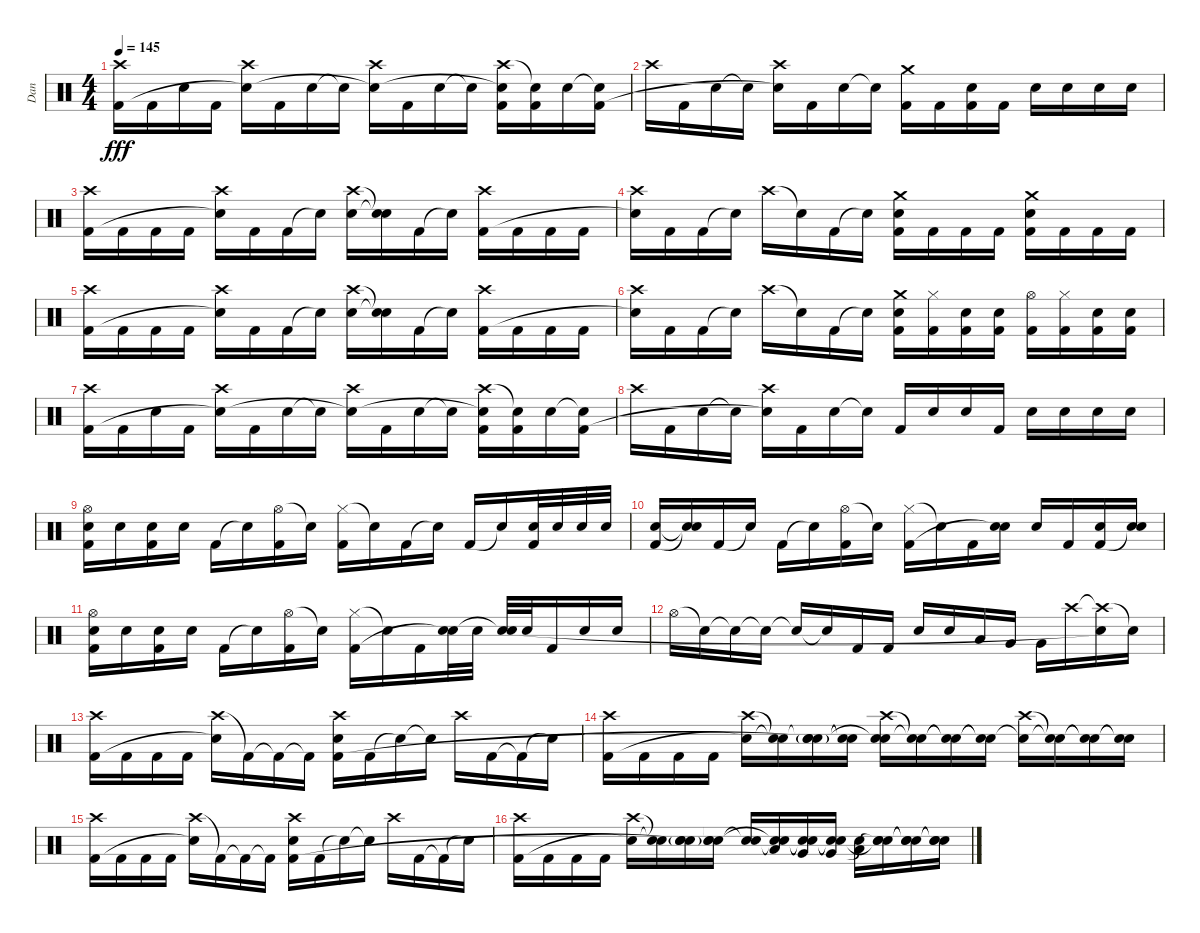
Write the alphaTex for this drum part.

\track ("Dan" "Dan") {instrument percussion}
\staff {score}
\articulation defaults
\ts (4 4)
\tempo 145
\clef neutral
\ks c
("Crash high (hit)" "Kick (hit) 2").16{dy fff} "Kick (hit) 2".16 "Electric Snare (hit)".16 "Kick (hit) 2".16 ("Crash high (hit)" "Snare (hit)"{t}).16 "Kick (hit) 2".16 "Electric Snare (hit)".16 "Snare (hit)"{t}.16 ("Crash high (hit)" "Snare (hit)"{t}).16 "Kick (hit) 2".16 "Electric Snare (hit)".16 "Snare (hit)"{t}.16 ("Crash high (hit)" "Snare (hit)"{t} "Kick (hit) 2").16 ("Snare (hit)"{t} "Kick (hit) 2").16 "Electric Snare (hit)".16 ("Snare (hit)"{t} "Kick (hit) 2").16 |
"Crash high (hit)".16 "Kick (hit) 2".16 "Electric Snare (hit)".16 "Snare (hit)"{t}.16 ("Crash high (hit)" "Snare (hit)"{t}).16 "Kick (hit) 2".16 "Electric Snare (hit)".16 "Snare (hit)"{t}.16 ("Crash medium (hit)" "Kick (hit) 2").16 "Kick (hit) 2".16 ("Electric Snare (hit)" "Kick (hit) 2").16 "Kick (hit) 2".16 "Electric Snare (hit)".16 "Electric Snare (hit)".16 "Electric Snare (hit)".16 "Electric Snare (hit)".16 |
("Crash high (hit)" "Kick (hit) 2").16 "Kick (hit) 2".16 "Kick (hit) 2".16 "Kick (hit) 2".16 ("Crash high (hit)" "Snare (hit)"{t}).16 "Kick (hit) 2".16 "Kick (hit) 2".16 "Snare (hit)"{t}.16 ("Crash high (hit)" "Electric Snare (hit)").16 ("Snare (hit)"{t} "Snare (hit)"{t}).16 "Kick (hit) 2".16 "Snare (hit)"{t}.16 ("Crash high (hit)" "Kick (hit) 2").16 "Kick (hit) 2".16 "Kick (hit) 2".16 "Kick (hit) 2".16 |
("Crash high (hit)" "Snare (hit)"{t}).16 "Kick (hit) 2".16 "Kick (hit) 2".16 "Snare (hit)"{t}.16 "Crash high (hit)".16 "Snare (hit)"{t}.16 "Kick (hit) 2".16 "Snare (hit)"{t}.16 ("Crash medium (hit)" "Electric Snare (hit)" "Kick (hit) 2").16 "Kick (hit) 2".16 "Kick (hit) 2".16 "Kick (hit) 2".16 ("Crash medium (hit)" "Electric Snare (hit)" "Kick (hit) 2").16 "Kick (hit) 2".16 "Kick (hit) 2".16 "Kick (hit) 2".16 |
("Crash high (hit)" "Kick (hit) 2").16 "Kick (hit) 2".16 "Kick (hit) 2".16 "Kick (hit) 2".16 ("Crash high (hit)" "Snare (hit)"{t}).16 "Kick (hit) 2".16 "Kick (hit) 2".16 "Snare (hit)"{t}.16 ("Crash high (hit)" "Electric Snare (hit)").16 ("Snare (hit)"{t} "Snare (hit)"{t}).16 "Kick (hit) 2".16 "Snare (hit)"{t}.16 ("Crash high (hit)" "Kick (hit) 2").16 "Kick (hit) 2".16 "Kick (hit) 2".16 "Kick (hit) 2".16 |
("Crash high (hit)" "Snare (hit)"{t}).16 "Kick (hit) 2".16 "Kick (hit) 2".16 "Snare (hit)"{t}.16 "Crash high (hit)".16 "Snare (hit)"{t}.16 "Kick (hit) 2".16 "Snare (hit)"{t}.16 ("Crash medium (hit)" "Electric Snare (hit)" "Kick (hit) 2").16 ("Hi-Hat (closed)" "Kick (hit) 2").16 ("Electric Snare (hit)" "Kick (hit) 2").16 ("Electric Snare (hit)" "Kick (hit) 2").16 ("Hi-Hat (open)" "Kick (hit) 2").16 ("Hi-Hat (closed)" "Kick (hit) 2").16 ("Electric Snare (hit)" "Kick (hit) 2").16 ("Electric Snare (hit)" "Kick (hit) 2").16 |
("Crash high (hit)" "Kick (hit) 2").16 "Kick (hit) 2".16 "Electric Snare (hit)".16 "Kick (hit) 2".16 ("Crash high (hit)" "Snare (hit)"{t}).16 "Kick (hit) 2".16 "Electric Snare (hit)".16 "Snare (hit)"{t}.16 ("Crash high (hit)" "Snare (hit)"{t}).16 "Kick (hit) 2".16 "Electric Snare (hit)".16 "Snare (hit)"{t}.16 ("Crash high (hit)" "Snare (hit)"{t} "Kick (hit) 2").16 ("Snare (hit)"{t} "Kick (hit) 2").16 "Electric Snare (hit)".16 ("Snare (hit)"{t} "Kick (hit) 2").16 |
"Crash high (hit)".16 "Kick (hit) 2".16 "Electric Snare (hit)".16 "Snare (hit)"{t}.16 ("Crash high (hit)" "Snare (hit)"{t}).16 "Kick (hit) 2".16 "Electric Snare (hit)".16 "Snare (hit)"{t}.16 "Kick (hit) 2".16 "Electric Snare (hit)".16 "Electric Snare (hit)".16 "Kick (hit) 2".16 "Electric Snare (hit)".16 "Electric Snare (hit)".16 "Electric Snare (hit)".16 "Electric Snare (hit)".16 |
("Hi-Hat (open)" "Electric Snare (hit)" "Kick (hit) 2").16 "Electric Snare (hit)".16 ("Electric Snare (hit)" "Kick (hit) 2").16 "Electric Snare (hit)".16 "Kick (hit) 2".16 "Snare (hit)"{t}.16 ("Hi-Hat (open)" "Kick (hit) 2").16 "Snare (hit)"{t}.16 ("Hi-Hat (closed)" "Kick (hit) 2").16 "Snare (hit)"{t}.16 "Kick (hit) 2".16 "Snare (hit)"{t}.16 "Kick (hit) 2".16 "Snare (hit)"{t}.16 ("Electric Snare (hit)" "Kick (hit) 2").32 "Electric Snare (hit)".32 "Electric Snare (hit)".32 "Electric Snare (hit)".32 |
("Electric Snare (hit)" "Kick (hit) 2").16 ("Snare (hit)"{t} "Snare (hit)"{t}).16 "Kick (hit) 2".16 "Snare (hit)"{t}.16 "Kick (hit) 2".16 "Snare (hit)"{t}.16 ("Hi-Hat (open)" "Kick (hit) 2").16 "Snare (hit)"{t}.16 ("Hi-Hat (closed)" "Kick (hit) 2").16 "Snare (hit)"{t}.16 "Kick (hit) 2".16 ("Electric Snare (hit)" "Snare (hit)"{t}).16 "Electric Snare (hit)".16 "Kick (hit) 2".16 ("Electric Snare (hit)" "Kick (hit) 2").16 ("Electric Snare (hit)" "Snare (hit)"{t}).16 |
("Hi-Hat (open)" "Electric Snare (hit)" "Kick (hit) 2").16 "Electric Snare (hit)".16 ("Electric Snare (hit)" "Kick (hit) 2").16 "Electric Snare (hit)".16 "Kick (hit) 2".16 "Snare (hit)"{t}.16 ("Hi-Hat (open)" "Kick (hit) 2").16 "Snare (hit)"{t}.16 ("Hi-Hat (closed)" "Kick (hit) 2").16 "Snare (hit)"{t}.16 "Kick (hit) 2".16 ("Electric Snare (hit)" "Snare (hit)"{t}).32 "Electric Snare (hit)".32 ("Electric Snare (hit)" "Snare (hit)"{t}).32 "Electric Snare (hit)".32 "Kick (hit) 2".16 "Electric Snare (hit)".16 "Electric Snare (hit)".16 |
"Hi-Hat (open)".16 "Snare (hit)"{t}.16 "Snare (hit)"{t}.16 "Snare (hit)"{t}.16 "Snare (hit)"{t}.16 "Snare (hit)"{t}.16 "Kick (hit) 2".16 "Kick (hit) 2".16 "Electric Snare (hit)".16 "Electric Snare (hit)".16 "Low Floor Tom (hit)".16 "Very Low Tom (hit)".16 "Very Low Tom (hit)".16 "Crash high (hit)".16 ("Crash high (hit)"{t} "Snare (hit)"{t}).16 "Snare (hit)"{t}.16 |
("Crash high (hit)" "Kick (hit) 2").16 "Kick (hit) 2".16 "Kick (hit) 2".16 "Kick (hit) 2".16 ("Crash high (hit)" "Snare (hit)"{t}).16 "Kick (hit) 2"{t}.16 "Kick (hit) 2"{t}.16 "Kick (hit) 2"{t}.16 ("Crash high (hit)" "Electric Snare (hit)" "Kick (hit) 2").16 "Kick (hit) 2".16 "Snare (hit)"{t}.16 "Snare (hit)"{t}.16 "Crash high (hit)".16 "Kick (hit) 2".16 "Kick (hit) 2"{t}.16 "Snare (hit)"{t}.16 |
("Crash high (hit)" "Kick (hit) 2").16 "Kick (hit) 2".16 "Kick (hit) 2".16 "Kick (hit) 2".16 ("Crash high (hit)" "Snare (hit)"{t}).16 ("Snare (hit)"{t} "Snare (hit)"{t}).16 ("Snare (hit)"{t} "Electric Snare (hit)"{g} "Snare (hit)"{t}).16 ("Snare (hit)"{t} "Snare (hit)"{t}).16 ("Crash high (hit)" "Electric Snare (hit)" "Snare (hit)"{t}).16 ("Snare (hit)"{t} "Snare (hit)"{t}).16 ("Snare (hit)"{t} "Snare (hit)"{t}).16 ("Snare (hit)"{t} "Snare (hit)"{t}).16 ("Crash high (hit)" "Snare (hit)"{t}).16 ("Snare (hit)"{t} "Snare (hit)"{t}).16 ("Snare (hit)"{t} "Snare (hit)"{t}).16 ("Snare (hit)"{t} "Snare (hit)"{t}).16 |
("Crash high (hit)" "Kick (hit) 2").16 "Kick (hit) 2".16 "Kick (hit) 2".16 "Kick (hit) 2".16 ("Crash high (hit)" "Snare (hit)"{t}).16 "Kick (hit) 2"{t}.16 "Kick (hit) 2"{t}.16 "Kick (hit) 2"{t}.16 ("Crash high (hit)" "Electric Snare (hit)" "Kick (hit) 2").16 "Kick (hit) 2".16 "Snare (hit)"{t}.16 "Snare (hit)"{t}.16 "Crash high (hit)".16 "Kick (hit) 2".16 "Kick (hit) 2"{t}.16 "Snare (hit)"{t}.16 |
("Crash high (hit)" "Kick (hit) 2").16 "Kick (hit) 2".16 "Kick (hit) 2".16 "Kick (hit) 2".16 ("Crash high (hit)" "Snare (hit)"{t}).16 ("Snare (hit)"{t} "Snare (hit)"{t}).16 ("Snare (hit)"{t} "Electric Snare (hit)"{g} "Snare (hit)"{t}).16 ("Snare (hit)"{t} "Electric Snare (hit)" "Snare (hit)"{t}).16 ("Electric Snare (hit)" "Snare (hit)"{t}).16 ("Snare (hit)"{t} "Low Tom (hit)" "Snare (hit)"{t}).16 ("Snare (hit)"{t} "Very Low Tom (hit)" "Snare (hit)"{t}).16 ("Snare (hit)"{t} "Very Low Tom (hit)" "Snare (hit)"{t}).16 ("Low Floor Tom (hit)" "Snare (hit)"{t}).16 ("Snare (hit)"{t} "Electric Snare (hit)" "Snare (hit)"{t}).16 ("Snare (hit)"{t} "Electric Snare (hit)" "Snare (hit)"{t}).16 ("Snare (hit)"{t} "Electric Snare (hit)" "Snare (hit)"{t}).16
